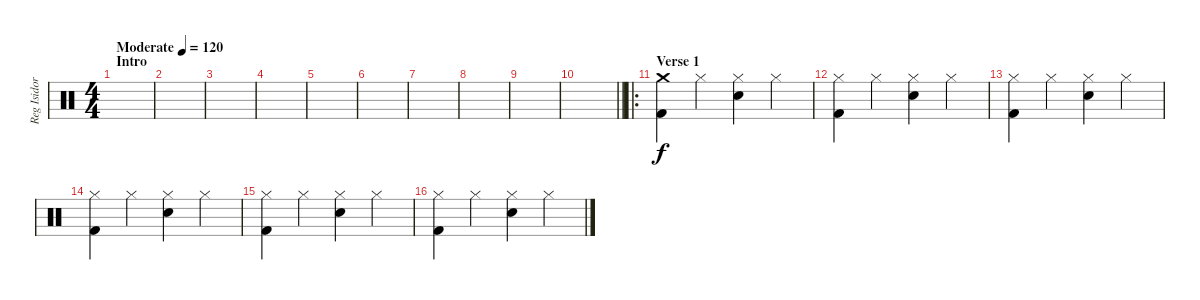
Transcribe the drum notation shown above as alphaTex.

\track ("Reg Isidor" "Reg Isidor") {instrument percussion}
\staff {score}
\articulation defaults
\ts (4 4)
\section ("" "Intro")
\tempo (120 "Moderate")
\clef neutral
\ks c
|
|
|
|
|
|
|
|
|
\barLineRight lightlight
|
\ro
\section ("" "Verse 1")
("Crash medium (hit)" "Kick (hit) 2").4 "Hi-Hat (closed)".4 ("Hi-Hat (closed)" "Snare (hit) 2").4 "Hi-Hat (closed)".4 |
("Hi-Hat (closed)" "Kick (hit) 2").4 "Hi-Hat (closed)".4 ("Hi-Hat (closed)" "Snare (hit) 2").4 "Hi-Hat (closed)".4 |
("Hi-Hat (closed)" "Kick (hit) 2").4 "Hi-Hat (closed)".4 ("Hi-Hat (closed)" "Snare (hit) 2").4 "Hi-Hat (closed)".4 |
("Hi-Hat (closed)" "Kick (hit) 2").4 "Hi-Hat (closed)".4 ("Hi-Hat (closed)" "Snare (hit) 2").4 "Hi-Hat (closed)".4 |
("Hi-Hat (closed)" "Kick (hit) 2").4 "Hi-Hat (closed)".4 ("Hi-Hat (closed)" "Snare (hit) 2").4 "Hi-Hat (closed)".4 |
("Hi-Hat (closed)" "Kick (hit) 2").4 "Hi-Hat (closed)".4 ("Hi-Hat (closed)" "Snare (hit) 2").4 "Hi-Hat (closed)".4
